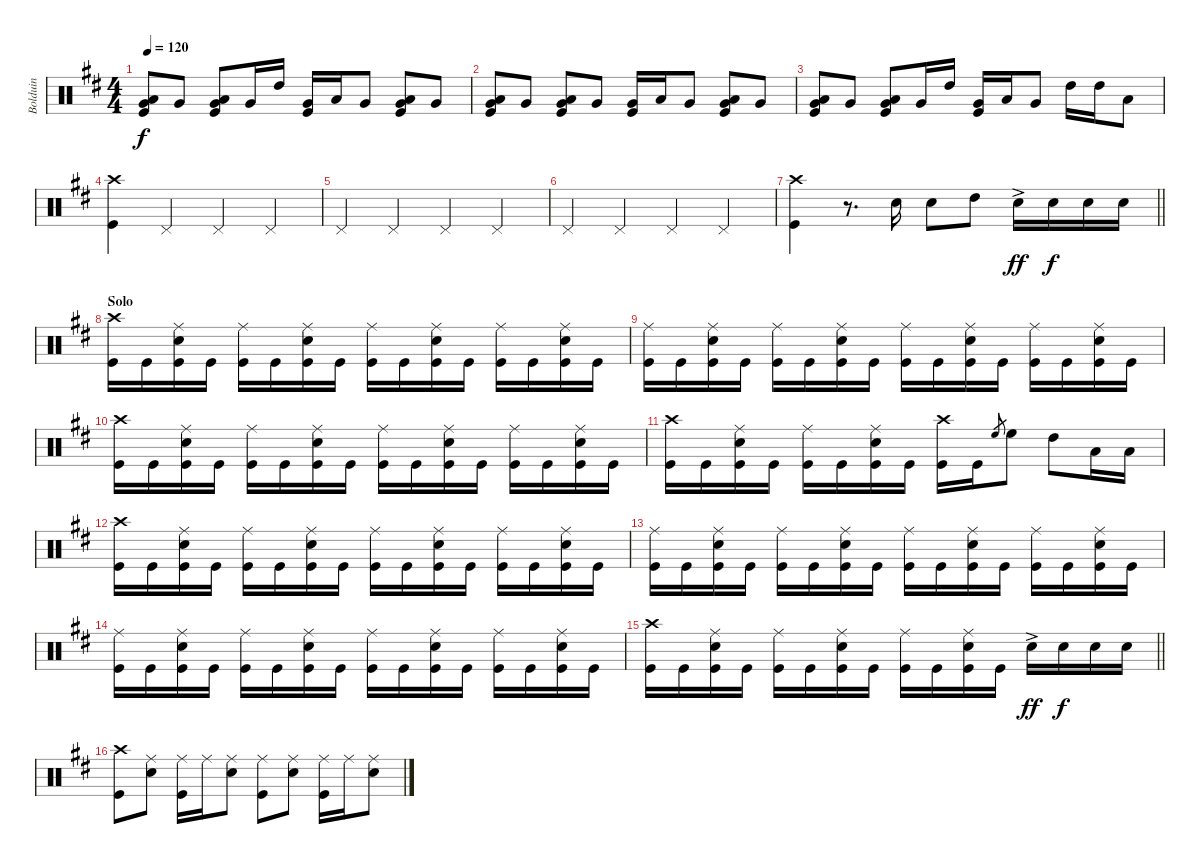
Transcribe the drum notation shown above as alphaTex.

\track ("Bolduin" "Bolduin") {instrument percussion}
\staff {score}
\articulation defaults
\ts (4 4)
\tempo 120
\clef neutral
\ks bminor
("Kick (hit)" "Low Tom (hit)" "Very Low Tom (hit)").8{dy f} "Very Low Tom (hit)".8 ("Very Low Tom (hit)" "Kick (hit)" "Low Tom (hit)").8 "Very Low Tom (hit)".16 "High Tom (hit)".16 ("Kick (hit)" "Very Low Tom (hit)").16 "Low Tom (hit)".16 "Very Low Tom (hit)".8 ("Kick (hit)" "Very Low Tom (hit)" "Low Tom (hit)").8 "Very Low Tom (hit)".8 |
("Kick (hit)" "Low Tom (hit)" "Very Low Tom (hit)").8 "Very Low Tom (hit)".8 ("Very Low Tom (hit)" "Kick (hit)" "Low Tom (hit)").8 "Very Low Tom (hit)".8 ("Kick (hit)" "Very Low Tom (hit)").16 "Low Tom (hit)".16 "Very Low Tom (hit)".8 ("Kick (hit)" "Very Low Tom (hit)" "Low Tom (hit)").8 "Very Low Tom (hit)".8 |
("Kick (hit)" "Low Tom (hit)" "Very Low Tom (hit)").8 "Very Low Tom (hit)".8 ("Very Low Tom (hit)" "Kick (hit)" "Low Tom (hit)").8 "Very Low Tom (hit)".16 "High Tom (hit)".16 ("Kick (hit)" "Very Low Tom (hit)").16 "Low Tom (hit)".16 "Very Low Tom (hit)".8 "High Tom (hit)".16 "High Tom (hit)".16 "Low Tom (hit)".8 |
("Kick (hit)" "Crash high (hit)").4 "Pedal Hi-Hat (hit)".4 "Pedal Hi-Hat (hit)".4 "Pedal Hi-Hat (hit)".4 |
"Pedal Hi-Hat (hit)".4 "Pedal Hi-Hat (hit)".4 "Pedal Hi-Hat (hit)".4 "Pedal Hi-Hat (hit)".4 |
"Pedal Hi-Hat (hit)".4 "Pedal Hi-Hat (hit)".4 "Pedal Hi-Hat (hit)".4 "Pedal Hi-Hat (hit)".4 |
\barLineRight lightlight
("Kick (hit)" "Crash high (hit)").4 r.8{d} "Snare (hit) 2".16 "Snare (hit) 2".8 "High Tom (hit)".8 "Snare (hit) 2"{ac}.16{dy ff} "Snare (hit) 2".16{dy f} "Snare (hit) 2".16 "Snare (hit) 2".16 |
\section ("" "Solo")
("Kick (hit)" "Crash high (hit)").16 "Kick (hit)".16 ("Kick (hit)" "Ride (middle)" "Snare (hit) 2").16 "Kick (hit)".16 ("Kick (hit)" "Ride (middle)").16 "Kick (hit)".16 ("Kick (hit)" "Ride (middle)" "Snare (hit) 2").16 "Kick (hit)".16 ("Kick (hit)" "Ride (middle)").16 "Kick (hit)".16 ("Kick (hit)" "Ride (middle)" "Snare (hit) 2").16 "Kick (hit)".16 ("Kick (hit)" "Ride (middle)").16 "Kick (hit)".16 ("Kick (hit)" "Ride (middle)" "Snare (hit) 2").16 "Kick (hit)".16 |
("Kick (hit)" "Ride (middle)").16 "Kick (hit)".16 ("Kick (hit)" "Ride (middle)" "Snare (hit) 2").16 "Kick (hit)".16 ("Kick (hit)" "Ride (middle)").16 "Kick (hit)".16 ("Kick (hit)" "Ride (middle)" "Snare (hit) 2").16 "Kick (hit)".16 ("Kick (hit)" "Ride (middle)").16 "Kick (hit)".16 ("Kick (hit)" "Ride (middle)" "Snare (hit) 2").16 "Kick (hit)".16 ("Kick (hit)" "Ride (middle)").16 "Kick (hit)".16 ("Kick (hit)" "Ride (middle)" "Snare (hit) 2").16 "Kick (hit)".16 |
("Kick (hit)" "Crash high (hit)").16 "Kick (hit)".16 ("Kick (hit)" "Ride (middle)" "Snare (hit) 2").16 "Kick (hit)".16 ("Kick (hit)" "Ride (middle)").16 "Kick (hit)".16 ("Kick (hit)" "Ride (middle)" "Snare (hit) 2").16 "Kick (hit)".16 ("Kick (hit)" "Ride (middle)").16 "Kick (hit)".16 ("Kick (hit)" "Ride (middle)" "Snare (hit) 2").16 "Kick (hit)".16 ("Kick (hit)" "Ride (middle)").16 "Kick (hit)".16 ("Kick (hit)" "Ride (middle)" "Snare (hit) 2").16 "Kick (hit)".16 |
("Kick (hit)" "Crash high (hit)").16 "Kick (hit)".16 ("Kick (hit)" "Ride (middle)" "Snare (hit) 2").16 "Kick (hit)".16 ("Kick (hit)" "Ride (middle)").16 "Kick (hit)".16 ("Kick (hit)" "Ride (middle)" "Snare (hit) 2").16 "Kick (hit)".16 ("Kick (hit)" "Crash high (hit)").16 "Kick (hit)".16 "High Floor Tom (hit)".8{gr} "High Floor Tom (hit)".8 "High Tom (hit)".8 "Low Tom (hit)".16 "Low Tom (hit)".16 |
("Kick (hit)" "Crash high (hit)").16 "Kick (hit)".16 ("Kick (hit)" "Ride (middle)" "Snare (hit) 2").16 "Kick (hit)".16 ("Kick (hit)" "Ride (middle)").16 "Kick (hit)".16 ("Kick (hit)" "Ride (middle)" "Snare (hit) 2").16 "Kick (hit)".16 ("Kick (hit)" "Ride (middle)").16 "Kick (hit)".16 ("Kick (hit)" "Ride (middle)" "Snare (hit) 2").16 "Kick (hit)".16 ("Kick (hit)" "Ride (middle)").16 "Kick (hit)".16 ("Kick (hit)" "Ride (middle)" "Snare (hit) 2").16 "Kick (hit)".16 |
("Kick (hit)" "Ride (middle)").16 "Kick (hit)".16 ("Kick (hit)" "Ride (middle)" "Snare (hit) 2").16 "Kick (hit)".16 ("Kick (hit)" "Ride (middle)").16 "Kick (hit)".16 ("Kick (hit)" "Ride (middle)" "Snare (hit) 2").16 "Kick (hit)".16 ("Kick (hit)" "Ride (middle)").16 "Kick (hit)".16 ("Kick (hit)" "Ride (middle)" "Snare (hit) 2").16 "Kick (hit)".16 ("Kick (hit)" "Ride (middle)").16 "Kick (hit)".16 ("Kick (hit)" "Ride (middle)" "Snare (hit) 2").16 "Kick (hit)".16 |
("Kick (hit)" "Ride (middle)").16 "Kick (hit)".16 ("Kick (hit)" "Ride (middle)" "Snare (hit) 2").16 "Kick (hit)".16 ("Kick (hit)" "Ride (middle)").16 "Kick (hit)".16 ("Kick (hit)" "Ride (middle)" "Snare (hit) 2").16 "Kick (hit)".16 ("Kick (hit)" "Ride (middle)").16 "Kick (hit)".16 ("Kick (hit)" "Ride (middle)" "Snare (hit) 2").16 "Kick (hit)".16 ("Kick (hit)" "Ride (middle)").16 "Kick (hit)".16 ("Kick (hit)" "Ride (middle)" "Snare (hit) 2").16 "Kick (hit)".16 |
\barLineRight lightlight
("Kick (hit)" "Crash high (hit)").16 "Kick (hit)".16 ("Kick (hit)" "Ride (middle)" "Snare (hit) 2").16 "Kick (hit)".16 ("Kick (hit)" "Ride (middle)").16 "Kick (hit)".16 ("Kick (hit)" "Ride (middle)" "Snare (hit) 2").16 "Kick (hit)".16 ("Kick (hit)" "Ride (middle)").16 "Kick (hit)".16 ("Kick (hit)" "Ride (middle)" "Snare (hit) 2").16 "Kick (hit)".16 "Snare (hit) 2"{ac}.16{dy ff} "Snare (hit) 2".16{dy f} "Snare (hit) 2".16 "Snare (hit) 2".16 |
("Kick (hit)" "Crash high (hit)").8 ("Snare (hit) 2" "Ride (middle)").8 ("Kick (hit)" "Ride (middle)").16 "Ride (middle)".16 ("Snare (hit) 2" "Ride (middle)").8 ("Kick (hit)" "Ride (middle)").8 ("Snare (hit) 2" "Ride (middle)").8 ("Kick (hit)" "Ride (middle)").16 "Ride (middle)".16 ("Snare (hit) 2" "Ride (middle)").8
